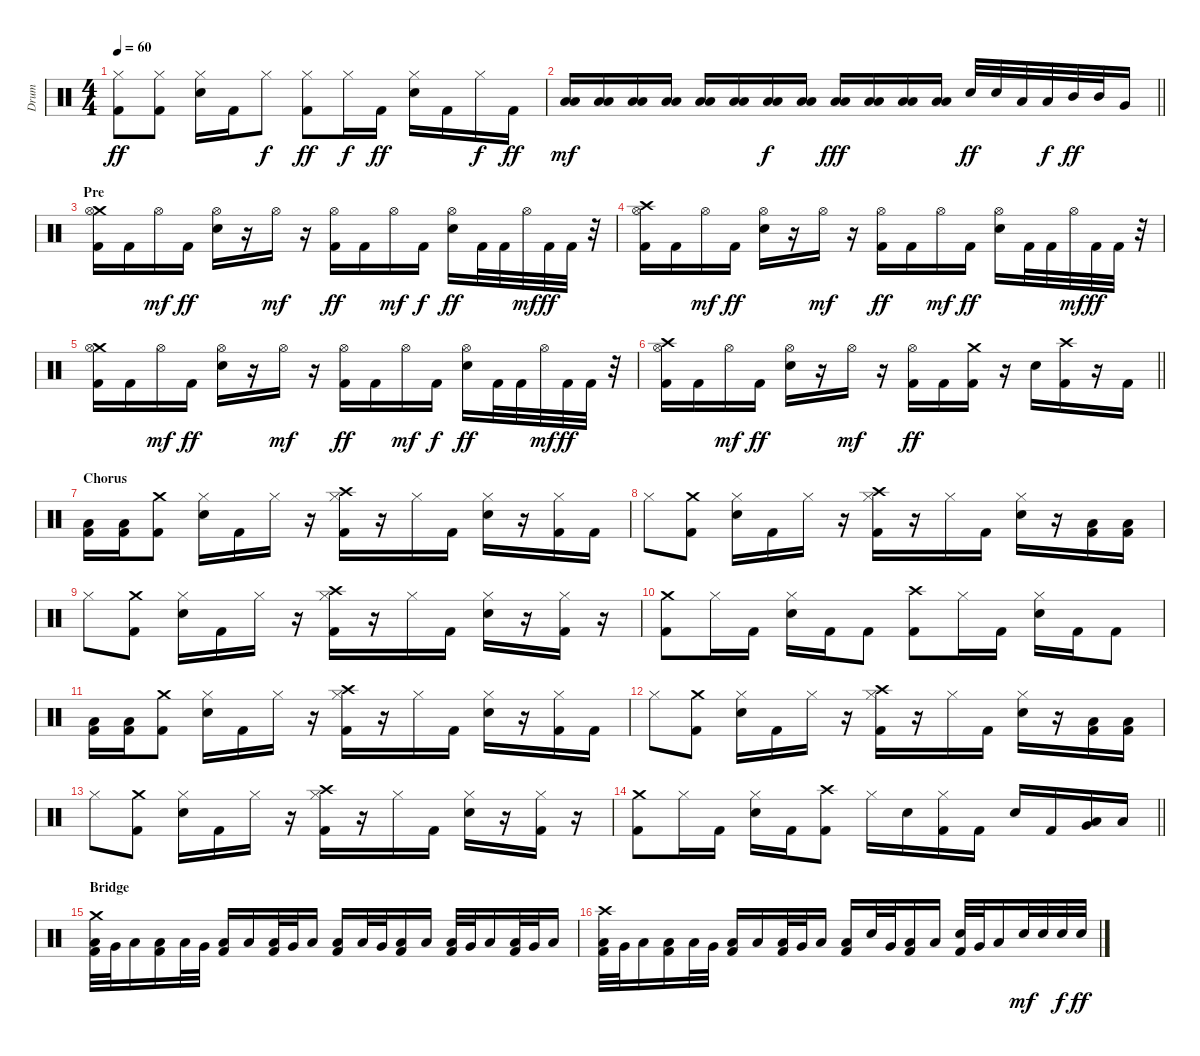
\track ("Drum" "Drum") {instrument percussion}
\staff {score}
\articulation defaults
\ts (4 4)
\tempo 60
\clef neutral
\ks c
("Hi-Hat (closed)" "Kick (hit) 2").8{dy ff} ("Hi-Hat (closed)" "Kick (hit) 2").8 ("Hi-Hat (closed)" "Electric Snare (hit)").16 "Kick (hit) 2".16 "Hi-Hat (closed)".8{dy f} ("Hi-Hat (closed)" "Kick (hit) 2").8{dy ff} "Hi-Hat (closed)".16{dy f} "Kick (hit) 2".16{dy ff} ("Hi-Hat (closed)" "Electric Snare (hit)").16 "Kick (hit) 2".16 "Hi-Hat (closed)".16{dy f} "Kick (hit) 2".16{dy ff} |
\barLineRight lightlight
("Low Floor Tom (hit)" "Low Tom (hit)").16{dy mf} ("Low Floor Tom (hit)" "Low Tom (hit)").16 ("Low Floor Tom (hit)" "Low Tom (hit)").16 ("Low Floor Tom (hit)" "Low Tom (hit)").16 ("Low Floor Tom (hit)" "Low Tom (hit)").16 ("Low Floor Tom (hit)" "Low Tom (hit)").16 ("Low Floor Tom (hit)" "Low Tom (hit)").16{dy f} ("Low Floor Tom (hit)" "Low Tom (hit)").16 ("Low Floor Tom (hit)" "Low Tom (hit)").16{dy fff} ("Low Floor Tom (hit)" "Low Tom (hit)").16 ("Low Floor Tom (hit)" "Low Tom (hit)").16 ("Low Floor Tom (hit)" "Low Tom (hit)").16 "Electric Snare (hit)".32{dy ff} "Electric Snare (hit)".32 "Low Floor Tom (hit)".32 "Low Floor Tom (hit)".32{dy f} "Mid Tom (hit)".32{dy ff} "Mid Tom (hit)".32 "Very Low Tom (hit)".16 |
\section ("" "Pre")
("Crash medium (hit)" "Hi-Hat (open)" "Kick (hit) 2").16 "Kick (hit) 2".16 "Hi-Hat (open)".16{dy mf} "Kick (hit) 2".16{dy ff} ("Hi-Hat (open)" "Electric Snare (hit)").16 r.16 "Hi-Hat (open)".16{dy mf} r.16 ("Hi-Hat (open)" "Kick (hit) 2").16{dy ff} "Kick (hit) 2".16 "Hi-Hat (open)".16{dy mf} "Kick (hit) 2".16{dy f} ("Hi-Hat (open)" "Electric Snare (hit)").16{dy ff} "Kick (hit) 2".32 "Kick (hit) 2".32 "Hi-Hat (open)".32{dy mf} "Kick (hit) 2".32{dy ff} "Kick (hit) 2".32 r.32 |
("Crash high (hit)" "Hi-Hat (open)" "Kick (hit) 2").16 "Kick (hit) 2".16 "Hi-Hat (open)".16{dy mf} "Kick (hit) 2".16{dy ff} ("Hi-Hat (open)" "Electric Snare (hit)").16 r.16 "Hi-Hat (open)".16{dy mf} r.16 ("Hi-Hat (open)" "Kick (hit) 2").16{dy ff} "Kick (hit) 2".16 "Hi-Hat (open)".16{dy mf} "Kick (hit) 2".16{dy ff} ("Hi-Hat (open)" "Electric Snare (hit)").16 "Kick (hit) 2".32 "Kick (hit) 2".32 "Hi-Hat (open)".32{dy mf} "Kick (hit) 2".32{dy ff} "Kick (hit) 2".32 r.32 |
("Crash medium (hit)" "Hi-Hat (open)" "Kick (hit) 2").16 "Kick (hit) 2".16 "Hi-Hat (open)".16{dy mf} "Kick (hit) 2".16{dy ff} ("Hi-Hat (open)" "Electric Snare (hit)").16 r.16 "Hi-Hat (open)".16{dy mf} r.16 ("Hi-Hat (open)" "Kick (hit) 2").16{dy ff} "Kick (hit) 2".16 "Hi-Hat (open)".16{dy mf} "Kick (hit) 2".16{dy f} ("Hi-Hat (open)" "Electric Snare (hit)").16{dy ff} "Kick (hit) 2".32 "Kick (hit) 2".32 "Hi-Hat (open)".32{dy mf} "Kick (hit) 2".32{dy ff} "Kick (hit) 2".32 r.32 |
\barLineRight lightlight
("Crash high (hit)" "Hi-Hat (open)" "Kick (hit) 2").16 "Kick (hit) 2".16 "Hi-Hat (open)".16{dy mf} "Kick (hit) 2".16{dy ff} ("Hi-Hat (open)" "Electric Snare (hit)").16 r.16 "Hi-Hat (open)".16{dy mf} r.16 ("Hi-Hat (open)" "Kick (hit) 2").16{dy ff} "Kick (hit) 2".16 ("Crash medium (hit)" "Kick (hit) 2").16 r.16 "Electric Snare (hit)".16 ("Crash high (hit)" "Kick (hit) 2").16 r.16 "Kick (hit) 2".16 |
\section ("" "Chorus")
("Low Floor Tom (hit)" "Kick (hit) 2").16 ("Low Floor Tom (hit)" "Kick (hit) 2").16 ("Crash medium (hit)" "Kick (hit) 2").8 ("Hi-Hat (closed)" "Electric Snare (hit)").16 "Kick (hit) 2".16 "Hi-Hat (closed)".16 r.16 ("Crash high (hit)" "Hi-Hat (closed)" "Kick (hit) 2").16 r.16 "Hi-Hat (closed)".16 "Kick (hit) 2".16 ("Hi-Hat (closed)" "Electric Snare (hit)").16 r.16 ("Hi-Hat (closed)" "Kick (hit) 2").16 "Kick (hit) 2".16 |
"Hi-Hat (closed)".8 ("Crash medium (hit)" "Kick (hit) 2").8 ("Hi-Hat (closed)" "Electric Snare (hit)").16 "Kick (hit) 2".16 "Hi-Hat (closed)".16 r.16 ("Crash high (hit)" "Hi-Hat (closed)" "Kick (hit) 2").16 r.16 "Hi-Hat (closed)".16 "Kick (hit) 2".16 ("Hi-Hat (closed)" "Electric Snare (hit)").16 r.16 ("Low Floor Tom (hit)" "Kick (hit) 2").16 ("Low Floor Tom (hit)" "Kick (hit) 2").16 |
"Hi-Hat (closed)".8 ("Crash medium (hit)" "Kick (hit) 2").8 ("Hi-Hat (closed)" "Electric Snare (hit)").16 "Kick (hit) 2".16 "Hi-Hat (closed)".16 r.16 ("Crash high (hit)" "Hi-Hat (closed)" "Kick (hit) 2").16 r.16 "Hi-Hat (closed)".16 "Kick (hit) 2".16 ("Hi-Hat (closed)" "Electric Snare (hit)").16 r.16 ("Hi-Hat (closed)" "Kick (hit) 2").16 r.16 |
("Crash medium (hit)" "Kick (hit) 2").8 "Hi-Hat (closed)".16 "Kick (hit) 2".16 ("Hi-Hat (closed)" "Electric Snare (hit)").16 "Kick (hit) 2".16 "Kick (hit) 2".8 ("Crash high (hit)" "Kick (hit) 2").8 "Hi-Hat (closed)".16 "Kick (hit) 2".16 ("Hi-Hat (closed)" "Electric Snare (hit)").16 "Kick (hit) 2".16 "Kick (hit) 2".8 |
("Low Floor Tom (hit)" "Kick (hit) 2").16 ("Low Floor Tom (hit)" "Kick (hit) 2").16 ("Crash medium (hit)" "Kick (hit) 2").8 ("Hi-Hat (closed)" "Electric Snare (hit)").16 "Kick (hit) 2".16 "Hi-Hat (closed)".16 r.16 ("Crash high (hit)" "Hi-Hat (closed)" "Kick (hit) 2").16 r.16 "Hi-Hat (closed)".16 "Kick (hit) 2".16 ("Hi-Hat (closed)" "Electric Snare (hit)").16 r.16 ("Hi-Hat (closed)" "Kick (hit) 2").16 "Kick (hit) 2".16 |
"Hi-Hat (closed)".8 ("Crash medium (hit)" "Kick (hit) 2").8 ("Hi-Hat (closed)" "Electric Snare (hit)").16 "Kick (hit) 2".16 "Hi-Hat (closed)".16 r.16 ("Crash high (hit)" "Hi-Hat (closed)" "Kick (hit) 2").16 r.16 "Hi-Hat (closed)".16 "Kick (hit) 2".16 ("Hi-Hat (closed)" "Electric Snare (hit)").16 r.16 ("Low Floor Tom (hit)" "Kick (hit) 2").16 ("Low Floor Tom (hit)" "Kick (hit) 2").16 |
"Hi-Hat (closed)".8 ("Crash medium (hit)" "Kick (hit) 2").8 ("Hi-Hat (closed)" "Electric Snare (hit)").16 "Kick (hit) 2".16 "Hi-Hat (closed)".16 r.16 ("Crash high (hit)" "Hi-Hat (closed)" "Kick (hit) 2").16 r.16 "Hi-Hat (closed)".16 "Kick (hit) 2".16 ("Hi-Hat (closed)" "Electric Snare (hit)").16 r.16 ("Hi-Hat (closed)" "Kick (hit) 2").16 r.16 |
\barLineRight lightlight
("Crash medium (hit)" "Kick (hit) 2").8 "Hi-Hat (closed)".16 "Kick (hit) 2".16 ("Hi-Hat (closed)" "Electric Snare (hit)").16 "Kick (hit) 2".16 ("Crash high (hit)" "Kick (hit) 2").8 "Hi-Hat (closed)".16 "Electric Snare (hit)".16 ("Hi-Hat (closed)" "Kick (hit) 2").16 "Kick (hit) 2".16 "Electric Snare (hit)".16 "Kick (hit) 2".16 ("Low Tom (hit)" "Very Low Tom (hit)").16 "Low Floor Tom (hit)".16 |
\section ("" "Bridge")
("Crash medium (hit)" "Low Floor Tom (hit)" "Kick (hit) 2").32 "Very Low Tom (hit)".32 "Low Floor Tom (hit)".16 ("Low Floor Tom (hit)" "Kick (hit) 2").16 "Low Floor Tom (hit)".32 "Very Low Tom (hit)".32 ("Low Floor Tom (hit)" "Kick (hit) 2").16 "Low Floor Tom (hit)".16 ("Low Floor Tom (hit)" "Kick (hit) 2").32 "Very Low Tom (hit)".32 "Low Floor Tom (hit)".16 ("Low Floor Tom (hit)" "Kick (hit) 2").16 "Low Floor Tom (hit)".32 "Very Low Tom (hit)".32 ("Low Floor Tom (hit)" "Kick (hit) 2").16 "Low Floor Tom (hit)".16 ("Low Floor Tom (hit)" "Kick (hit) 2").32 "Very Low Tom (hit)".32 "Low Floor Tom (hit)".16 ("Low Floor Tom (hit)" "Kick (hit) 2").32 "Very Low Tom (hit)".32 "Low Floor Tom (hit)".16 |
("Crash high (hit)" "Low Floor Tom (hit)" "Kick (hit) 2").32 "Very Low Tom (hit)".32 "Low Floor Tom (hit)".16 ("Low Floor Tom (hit)" "Kick (hit) 2").16 "Low Floor Tom (hit)".32 "Very Low Tom (hit)".32 ("Low Floor Tom (hit)" "Kick (hit) 2").16 "Low Floor Tom (hit)".16 ("Low Floor Tom (hit)" "Kick (hit) 2").32 "Very Low Tom (hit)".32 "Low Floor Tom (hit)".16 ("Low Floor Tom (hit)" "Kick (hit) 2").16 "Electric Snare (hit)".32 "Very Low Tom (hit)".32 ("Low Floor Tom (hit)" "Kick (hit) 2").16 "Low Floor Tom (hit)".16 ("Electric Snare (hit)" "Kick (hit) 2").32 "Very Low Tom (hit)".32 "Low Floor Tom (hit)".16 "Electric Snare (hit)".32{dy mf} "Electric Snare (hit)".32 "Electric Snare (hit)".32{dy f} "Electric Snare (hit)".32{dy ff}
